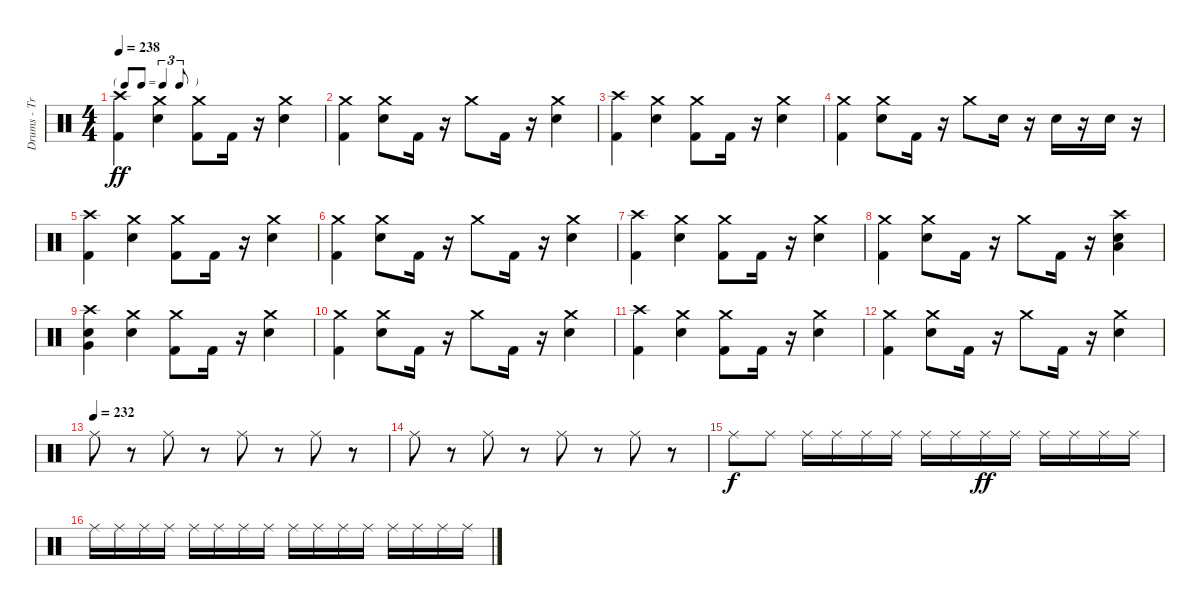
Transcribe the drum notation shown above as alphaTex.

\track ("Drums - Travis" "Drums - Tr") {instrument percussion}
\staff {score}
\articulation defaults
\ts (4 4)
\tf triplet8th
\tempo 238
\clef neutral
\ks c
("Kick (hit) 2" "Crash high (hit)").4{dy ff} ("Electric Snare (hit)" "Crash medium (hit)").4 ("Kick (hit) 2" "Crash medium (hit)").8 "Kick (hit) 2".16 r.16 ("Electric Snare (hit)" "Crash medium (hit)").4 |
("Kick (hit) 2" "Crash medium (hit)").4 ("Electric Snare (hit)" "Crash medium (hit)").8 "Kick (hit) 2".16 r.16 "Crash medium (hit)".8 "Kick (hit) 2".16 r.16 ("Electric Snare (hit)" "Crash medium (hit)").4 |
("Kick (hit) 2" "Crash high (hit)").4 ("Electric Snare (hit)" "Crash medium (hit)").4 ("Kick (hit) 2" "Crash medium (hit)").8 "Kick (hit) 2".16 r.16 ("Electric Snare (hit)" "Crash medium (hit)").4 |
("Kick (hit) 2" "Crash medium (hit)").4 ("Electric Snare (hit)" "Crash medium (hit)").8 "Kick (hit) 2".16 r.16 "Crash medium (hit)".8 "Electric Snare (hit)".16 r.16 "Electric Snare (hit)".16 r.16 "Electric Snare (hit)".16 r.16 |
("Kick (hit) 2" "Crash high (hit)").4 ("Electric Snare (hit)" "Crash medium (hit)").4 ("Kick (hit) 2" "Crash medium (hit)").8 "Kick (hit) 2".16 r.16 ("Electric Snare (hit)" "Crash medium (hit)").4 |
("Kick (hit) 2" "Crash medium (hit)").4 ("Electric Snare (hit)" "Crash medium (hit)").8 "Kick (hit) 2".16 r.16 "Crash medium (hit)".8 "Kick (hit) 2".16 r.16 ("Electric Snare (hit)" "Crash medium (hit)").4 |
("Kick (hit) 2" "Crash high (hit)").4 ("Electric Snare (hit)" "Crash medium (hit)").4 ("Kick (hit) 2" "Crash medium (hit)").8 "Kick (hit) 2".16 r.16 ("Electric Snare (hit)" "Crash medium (hit)").4 |
("Kick (hit) 2" "Crash medium (hit)").4 ("Electric Snare (hit)" "Crash medium (hit)").8 "Kick (hit) 2".16 r.16 "Crash medium (hit)".8 "Kick (hit) 2".16 r.16 ("Crash high (hit)" "Electric Snare (hit)" "Low Tom (hit)").4 |
("Electric Snare (hit)" "Very Low Tom (hit)" "Crash high (hit)").4 ("Crash medium (hit)" "Electric Snare (hit)").4 ("Crash medium (hit)" "Kick (hit) 2").8 "Kick (hit) 2".16 r.16 ("Crash medium (hit)" "Electric Snare (hit)").4 |
("Crash medium (hit)" "Kick (hit) 2").4 ("Crash medium (hit)" "Electric Snare (hit)").8 "Kick (hit) 2".16 r.16 "Crash medium (hit)".8 "Kick (hit) 2".16 r.16 ("Electric Snare (hit)" "Crash medium (hit)").4 |
("Kick (hit) 2" "Crash high (hit)").4 ("Electric Snare (hit)" "Crash medium (hit)").4 ("Kick (hit) 2" "Crash medium (hit)").8 "Kick (hit) 2".16 r.16 ("Electric Snare (hit)" "Crash medium (hit)").4 |
("Kick (hit) 2" "Crash medium (hit)").4 ("Electric Snare (hit)" "Crash medium (hit)").8 "Kick (hit) 2".16 r.16 "Crash medium (hit)".8 "Kick (hit) 2".16 r.16 ("Electric Snare (hit)" "Crash medium (hit)").4 |
\tempo (232)
"Ride (middle)".8 r.8 "Ride (middle)".8 r.8 "Ride (middle)".8 r.8 "Ride (middle)".8 r.8 |
"Ride (middle)".8 r.8 "Ride (middle)".8 r.8 "Ride (middle)".8 r.8 "Ride (middle)".8 r.8 |
"Ride (middle)".8{dy f} "Ride (middle)".8 "Ride (middle)".16 "Ride (middle)".16 "Ride (middle)".16 "Ride (middle)".16 "Ride (middle)".16 "Ride (middle)".16 "Ride (middle)".16{dy ff} "Ride (middle)".16 "Ride (middle)".16 "Ride (middle)".16 "Ride (middle)".16 "Ride (middle)".16 |
"Ride (middle)".16 "Ride (middle)".16 "Ride (middle)".16 "Ride (middle)".16 "Ride (middle)".16 "Ride (middle)".16 "Ride (middle)".16 "Ride (middle)".16 "Ride (middle)".16 "Ride (middle)".16 "Ride (middle)".16 "Ride (middle)".16 "Ride (middle)".16 "Ride (middle)".16 "Ride (middle)".16 "Ride (middle)".16
